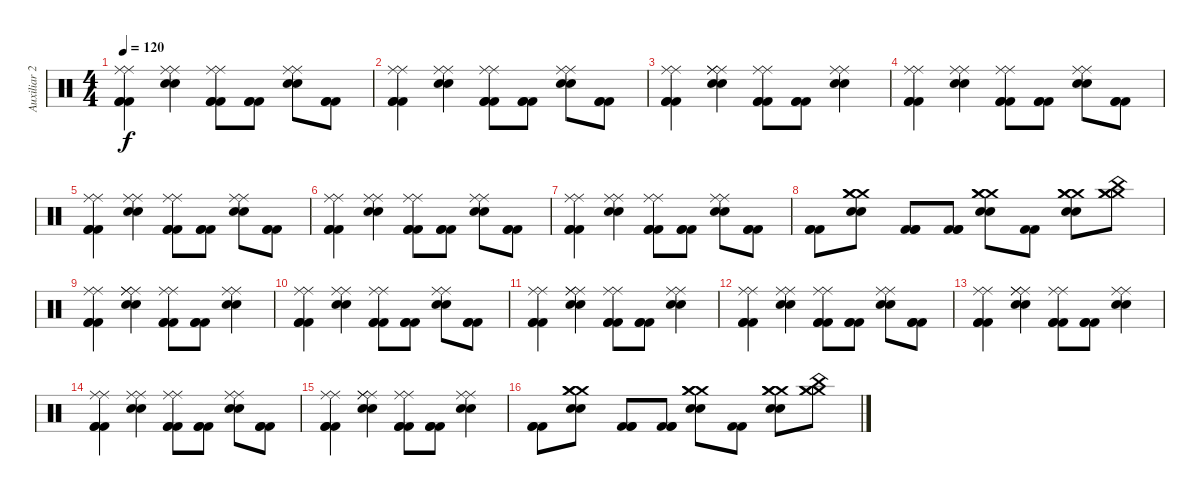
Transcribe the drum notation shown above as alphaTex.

\track ("Auxiliar 2" "Auxiliar 2") {instrument percussion}
\staff {score}
\articulation defaults
\ts (4 4)
\tempo 120
\clef neutral
\ks c
("Kick (hit) 2" "Kick (hit) 2" "Kick (hit) 2" "Ride (middle)" "Ride (middle)").4{dy f} ("Snare (hit) 2" "Snare (hit) 2" "Ride (middle)" "Ride (middle)").4 ("Kick (hit) 2" "Kick (hit) 2" "Kick (hit) 2" "Ride (middle)" "Ride (middle)").8 ("Kick (hit) 2" "Kick (hit) 2" "Kick (hit) 2").8 ("Snare (hit) 2" "Snare (hit) 2" "Ride (middle)" "Ride (middle)").8 ("Kick (hit) 2" "Kick (hit) 2" "Kick (hit) 2").8 |
("Kick (hit) 2" "Kick (hit) 2" "Kick (hit) 2" "Ride (middle)" "Ride (middle)").4 ("Snare (hit) 2" "Snare (hit) 2" "Ride (middle)" "Ride (middle)").4 ("Kick (hit) 2" "Kick (hit) 2" "Kick (hit) 2" "Ride (middle)" "Ride (middle)").8 ("Kick (hit) 2" "Kick (hit) 2" "Kick (hit) 2").8 ("Snare (hit) 2" "Snare (hit) 2" "Ride (middle)" "Ride (middle)").8 ("Kick (hit) 2" "Kick (hit) 2" "Kick (hit) 2").8 |
("Kick (hit) 2" "Kick (hit) 2" "Kick (hit) 2" "Ride (middle)" "Ride (middle)").4 ("Snare (hit) 2" "Snare (hit) 2" "Ride (middle)" "Ride (middle)" "Ride (middle)").4 ("Kick (hit) 2" "Kick (hit) 2" "Kick (hit) 2" "Ride (middle)" "Ride (middle)").8 ("Kick (hit) 2" "Kick (hit) 2" "Kick (hit) 2").8 ("Snare (hit) 2" "Snare (hit) 2" "Ride (middle)" "Ride (middle)").4 |
("Kick (hit) 2" "Kick (hit) 2" "Kick (hit) 2" "Ride (middle)" "Ride (middle)").4 ("Snare (hit) 2" "Snare (hit) 2" "Ride (middle)" "Ride (middle)").4 ("Kick (hit) 2" "Kick (hit) 2" "Kick (hit) 2" "Ride (middle)" "Ride (middle)").8 ("Kick (hit) 2" "Kick (hit) 2" "Kick (hit) 2").8 ("Snare (hit) 2" "Snare (hit) 2" "Ride (middle)" "Ride (middle)").8 ("Kick (hit) 2" "Kick (hit) 2" "Kick (hit) 2").8 |
("Kick (hit) 2" "Kick (hit) 2" "Kick (hit) 2" "Ride (middle)" "Ride (middle)").4 ("Snare (hit) 2" "Snare (hit) 2" "Ride (middle)" "Ride (middle)").4 ("Kick (hit) 2" "Kick (hit) 2" "Kick (hit) 2" "Ride (middle)" "Ride (middle)").8 ("Kick (hit) 2" "Kick (hit) 2" "Kick (hit) 2").8 ("Snare (hit) 2" "Snare (hit) 2" "Ride (middle)" "Ride (middle)").8 ("Kick (hit) 2" "Kick (hit) 2" "Kick (hit) 2").8 |
("Kick (hit) 2" "Kick (hit) 2" "Kick (hit) 2" "Ride (middle)" "Ride (middle)").4 ("Snare (hit) 2" "Snare (hit) 2" "Ride (middle)" "Ride (middle)").4 ("Kick (hit) 2" "Kick (hit) 2" "Kick (hit) 2" "Ride (middle)" "Ride (middle)").8 ("Kick (hit) 2" "Kick (hit) 2" "Kick (hit) 2").8 ("Snare (hit) 2" "Snare (hit) 2" "Ride (middle)" "Ride (middle)").8 ("Kick (hit) 2" "Kick (hit) 2" "Kick (hit) 2").8 |
("Kick (hit) 2" "Kick (hit) 2" "Kick (hit) 2" "Ride (middle)" "Ride (middle)").4 ("Snare (hit) 2" "Snare (hit) 2" "Ride (middle)" "Ride (middle)").4 ("Kick (hit) 2" "Kick (hit) 2" "Kick (hit) 2" "Ride (middle)" "Ride (middle)").8 ("Kick (hit) 2" "Kick (hit) 2" "Kick (hit) 2").8 ("Snare (hit) 2" "Snare (hit) 2" "Ride (middle)" "Ride (middle)").8 ("Kick (hit) 2" "Kick (hit) 2" "Kick (hit) 2").8 |
("Kick (hit) 2" "Kick (hit) 2" "Kick (hit) 2").8 ("Snare (hit) 2" "Snare (hit) 2" "Crash medium (hit)" "Crash medium (hit)" "Crash medium (hit)").8 ("Kick (hit) 2" "Kick (hit) 2" "Kick (hit) 2").8 ("Kick (hit) 2" "Kick (hit) 2" "Kick (hit) 2").8 ("Snare (hit) 2" "Snare (hit) 2" "Crash medium (hit)" "Crash medium (hit)" "Crash medium (hit)").8 ("Kick (hit) 2" "Kick (hit) 2").8 ("Snare (hit) 2" "Snare (hit) 2" "Crash medium (hit)" "Crash medium (hit)" "Crash medium (hit)").8 ("Crash medium (hit)" "Crash medium (hit)" "Crash medium (hit)" "China (hit)").8 |
("Kick (hit) 2" "Kick (hit) 2" "Kick (hit) 2" "Ride (middle)" "Ride (middle)").4 ("Snare (hit) 2" "Snare (hit) 2" "Ride (middle)" "Ride (middle)" "Ride (middle)").4 ("Kick (hit) 2" "Kick (hit) 2" "Kick (hit) 2" "Ride (middle)" "Ride (middle)").8 ("Kick (hit) 2" "Kick (hit) 2" "Kick (hit) 2").8 ("Snare (hit) 2" "Snare (hit) 2" "Ride (middle)" "Ride (middle)").4 |
("Kick (hit) 2" "Kick (hit) 2" "Kick (hit) 2" "Ride (middle)" "Ride (middle)").4 ("Snare (hit) 2" "Snare (hit) 2" "Ride (middle)" "Ride (middle)").4 ("Kick (hit) 2" "Kick (hit) 2" "Kick (hit) 2" "Ride (middle)" "Ride (middle)").8 ("Kick (hit) 2" "Kick (hit) 2" "Kick (hit) 2").8 ("Snare (hit) 2" "Snare (hit) 2" "Ride (middle)" "Ride (middle)").8 ("Kick (hit) 2" "Kick (hit) 2" "Kick (hit) 2").8 |
("Kick (hit) 2" "Kick (hit) 2" "Kick (hit) 2" "Ride (middle)" "Ride (middle)").4 ("Snare (hit) 2" "Snare (hit) 2" "Ride (middle)" "Ride (middle)" "Ride (middle)").4 ("Kick (hit) 2" "Kick (hit) 2" "Kick (hit) 2" "Ride (middle)" "Ride (middle)").8 ("Kick (hit) 2" "Kick (hit) 2" "Kick (hit) 2").8 ("Snare (hit) 2" "Snare (hit) 2" "Ride (middle)" "Ride (middle)").4 |
("Kick (hit) 2" "Kick (hit) 2" "Kick (hit) 2" "Ride (middle)" "Ride (middle)").4 ("Snare (hit) 2" "Snare (hit) 2" "Ride (middle)" "Ride (middle)").4 ("Kick (hit) 2" "Kick (hit) 2" "Kick (hit) 2" "Ride (middle)" "Ride (middle)").8 ("Kick (hit) 2" "Kick (hit) 2" "Kick (hit) 2").8 ("Snare (hit) 2" "Snare (hit) 2" "Ride (middle)" "Ride (middle)").8 ("Kick (hit) 2" "Kick (hit) 2" "Kick (hit) 2").8 |
("Kick (hit) 2" "Kick (hit) 2" "Kick (hit) 2" "Ride (middle)" "Ride (middle)").4 ("Snare (hit) 2" "Snare (hit) 2" "Ride (middle)" "Ride (middle)" "Ride (middle)").4 ("Kick (hit) 2" "Kick (hit) 2" "Kick (hit) 2" "Ride (middle)" "Ride (middle)").8 ("Kick (hit) 2" "Kick (hit) 2" "Kick (hit) 2").8 ("Snare (hit) 2" "Snare (hit) 2" "Ride (middle)" "Ride (middle)").4 |
("Kick (hit) 2" "Kick (hit) 2" "Kick (hit) 2" "Ride (middle)" "Ride (middle)").4 ("Snare (hit) 2" "Snare (hit) 2" "Ride (middle)" "Ride (middle)").4 ("Kick (hit) 2" "Kick (hit) 2" "Kick (hit) 2" "Ride (middle)" "Ride (middle)").8 ("Kick (hit) 2" "Kick (hit) 2" "Kick (hit) 2").8 ("Snare (hit) 2" "Snare (hit) 2" "Ride (middle)" "Ride (middle)").8 ("Kick (hit) 2" "Kick (hit) 2" "Kick (hit) 2").8 |
("Kick (hit) 2" "Kick (hit) 2" "Kick (hit) 2" "Ride (middle)" "Ride (middle)").4 ("Snare (hit) 2" "Snare (hit) 2" "Ride (middle)" "Ride (middle)" "Ride (middle)").4 ("Kick (hit) 2" "Kick (hit) 2" "Kick (hit) 2" "Ride (middle)" "Ride (middle)").8 ("Kick (hit) 2" "Kick (hit) 2" "Kick (hit) 2").8 ("Snare (hit) 2" "Snare (hit) 2" "Ride (middle)" "Ride (middle)").4 |
("Kick (hit) 2" "Kick (hit) 2" "Kick (hit) 2").8 ("Snare (hit) 2" "Snare (hit) 2" "Crash medium (hit)" "Crash medium (hit)" "Crash medium (hit)").8 ("Kick (hit) 2" "Kick (hit) 2" "Kick (hit) 2").8 ("Kick (hit) 2" "Kick (hit) 2" "Kick (hit) 2").8 ("Snare (hit) 2" "Snare (hit) 2" "Crash medium (hit)" "Crash medium (hit)" "Crash medium (hit)").8 ("Kick (hit) 2" "Kick (hit) 2").8 ("Snare (hit) 2" "Snare (hit) 2" "Crash medium (hit)" "Crash medium (hit)" "Crash medium (hit)").8 ("Crash medium (hit)" "Crash medium (hit)" "Crash medium (hit)" "China (hit)").8
